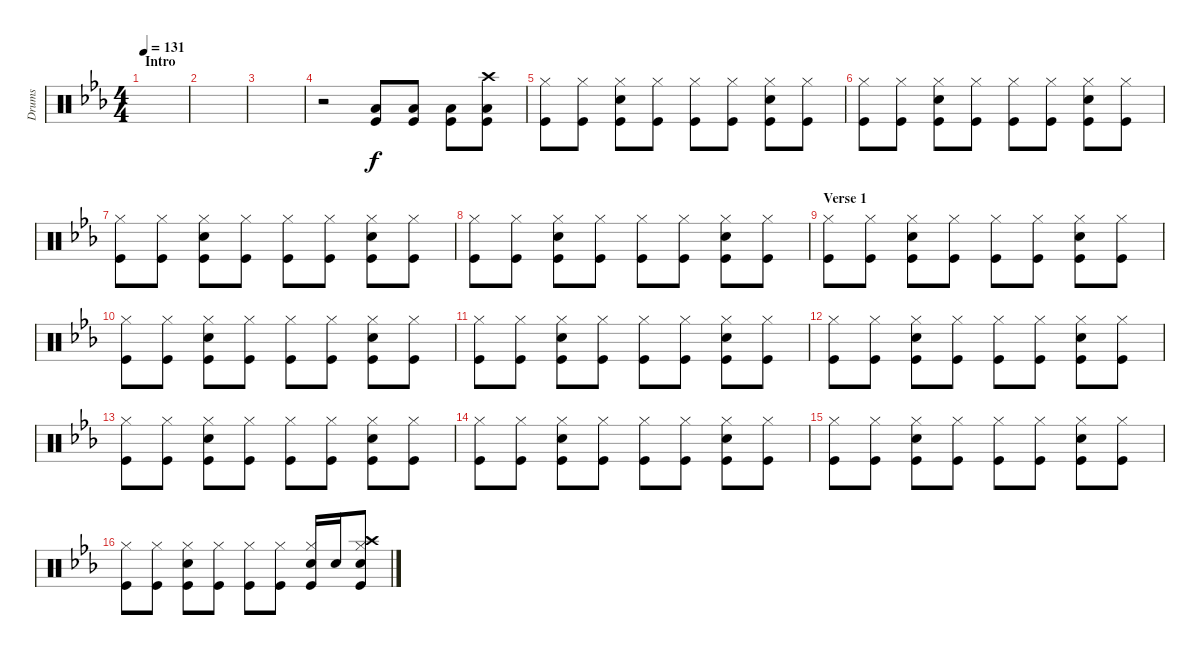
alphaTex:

\track ("Drums" "Drums") {instrument percussion}
\staff {score}
\articulation defaults
\ts (4 4)
\section ("" "Intro")
\tempo 131
\clef neutral
\ks eb
|
|
|
r.2 ("Kick (hit)" "Low Floor Tom (hit)").8 ("Kick (hit)" "Low Floor Tom (hit)").8 ("Kick (hit)" "Low Floor Tom (hit)").8 ("Kick (hit)" "Low Floor Tom (hit)" "Crash high (hit)").8 |
("Kick (hit)" "Hi-Hat (closed)").8 ("Kick (hit)" "Hi-Hat (closed)").8 ("Kick (hit)" "Snare (hit) 2" "Hi-Hat (closed)").8 ("Kick (hit)" "Hi-Hat (closed)").8 ("Kick (hit)" "Hi-Hat (closed)").8 ("Kick (hit)" "Hi-Hat (closed)").8 ("Kick (hit)" "Snare (hit) 2" "Hi-Hat (closed)").8 ("Kick (hit)" "Hi-Hat (closed)").8 |
("Kick (hit)" "Hi-Hat (closed)").8 ("Kick (hit)" "Hi-Hat (closed)").8 ("Kick (hit)" "Snare (hit) 2" "Hi-Hat (closed)").8 ("Kick (hit)" "Hi-Hat (closed)").8 ("Kick (hit)" "Hi-Hat (closed)").8 ("Kick (hit)" "Hi-Hat (closed)").8 ("Kick (hit)" "Snare (hit) 2" "Hi-Hat (closed)").8 ("Kick (hit)" "Hi-Hat (closed)").8 |
("Kick (hit)" "Hi-Hat (closed)").8 ("Kick (hit)" "Hi-Hat (closed)").8 ("Kick (hit)" "Snare (hit) 2" "Hi-Hat (closed)").8 ("Kick (hit)" "Hi-Hat (closed)").8 ("Kick (hit)" "Hi-Hat (closed)").8 ("Kick (hit)" "Hi-Hat (closed)").8 ("Kick (hit)" "Snare (hit) 2" "Hi-Hat (closed)").8 ("Kick (hit)" "Hi-Hat (closed)").8 |
("Kick (hit)" "Hi-Hat (closed)").8 ("Kick (hit)" "Hi-Hat (closed)").8 ("Kick (hit)" "Snare (hit) 2" "Hi-Hat (closed)").8 ("Kick (hit)" "Hi-Hat (closed)").8 ("Kick (hit)" "Hi-Hat (closed)").8 ("Kick (hit)" "Hi-Hat (closed)").8 ("Kick (hit)" "Snare (hit) 2" "Hi-Hat (closed)").8 ("Kick (hit)" "Hi-Hat (closed)").8 |
\section ("" "Verse 1")
("Kick (hit)" "Hi-Hat (closed)").8 ("Kick (hit)" "Hi-Hat (closed)").8 ("Kick (hit)" "Snare (hit) 2" "Hi-Hat (closed)").8 ("Kick (hit)" "Hi-Hat (closed)").8 ("Kick (hit)" "Hi-Hat (closed)").8 ("Kick (hit)" "Hi-Hat (closed)").8 ("Kick (hit)" "Snare (hit) 2" "Hi-Hat (closed)").8 ("Kick (hit)" "Hi-Hat (closed)").8 |
("Kick (hit)" "Hi-Hat (closed)").8 ("Kick (hit)" "Hi-Hat (closed)").8 ("Kick (hit)" "Snare (hit) 2" "Hi-Hat (closed)").8 ("Kick (hit)" "Hi-Hat (closed)").8 ("Kick (hit)" "Hi-Hat (closed)").8 ("Kick (hit)" "Hi-Hat (closed)").8 ("Kick (hit)" "Snare (hit) 2" "Hi-Hat (closed)").8 ("Kick (hit)" "Hi-Hat (closed)").8 |
("Kick (hit)" "Hi-Hat (closed)").8 ("Kick (hit)" "Hi-Hat (closed)").8 ("Kick (hit)" "Snare (hit) 2" "Hi-Hat (closed)").8 ("Kick (hit)" "Hi-Hat (closed)").8 ("Kick (hit)" "Hi-Hat (closed)").8 ("Kick (hit)" "Hi-Hat (closed)").8 ("Kick (hit)" "Snare (hit) 2" "Hi-Hat (closed)").8 ("Kick (hit)" "Hi-Hat (closed)").8 |
("Kick (hit)" "Hi-Hat (closed)").8 ("Kick (hit)" "Hi-Hat (closed)").8 ("Kick (hit)" "Snare (hit) 2" "Hi-Hat (closed)").8 ("Kick (hit)" "Hi-Hat (closed)").8 ("Kick (hit)" "Hi-Hat (closed)").8 ("Kick (hit)" "Hi-Hat (closed)").8 ("Kick (hit)" "Snare (hit) 2" "Hi-Hat (closed)").8 ("Kick (hit)" "Hi-Hat (closed)").8 |
("Kick (hit)" "Hi-Hat (closed)").8 ("Kick (hit)" "Hi-Hat (closed)").8 ("Kick (hit)" "Snare (hit) 2" "Hi-Hat (closed)").8 ("Kick (hit)" "Hi-Hat (closed)").8 ("Kick (hit)" "Hi-Hat (closed)").8 ("Kick (hit)" "Hi-Hat (closed)").8 ("Kick (hit)" "Snare (hit) 2" "Hi-Hat (closed)").8 ("Kick (hit)" "Hi-Hat (closed)").8 |
("Kick (hit)" "Hi-Hat (closed)").8 ("Kick (hit)" "Hi-Hat (closed)").8 ("Kick (hit)" "Snare (hit) 2" "Hi-Hat (closed)").8 ("Kick (hit)" "Hi-Hat (closed)").8 ("Kick (hit)" "Hi-Hat (closed)").8 ("Kick (hit)" "Hi-Hat (closed)").8 ("Kick (hit)" "Snare (hit) 2" "Hi-Hat (closed)").8 ("Kick (hit)" "Hi-Hat (closed)").8 |
("Kick (hit)" "Hi-Hat (closed)").8 ("Kick (hit)" "Hi-Hat (closed)").8 ("Kick (hit)" "Snare (hit) 2" "Hi-Hat (closed)").8 ("Kick (hit)" "Hi-Hat (closed)").8 ("Kick (hit)" "Hi-Hat (closed)").8 ("Kick (hit)" "Hi-Hat (closed)").8 ("Kick (hit)" "Snare (hit) 2" "Hi-Hat (closed)").8 ("Kick (hit)" "Hi-Hat (closed)").8 |
("Kick (hit)" "Hi-Hat (closed)").8 ("Kick (hit)" "Hi-Hat (closed)").8 ("Kick (hit)" "Snare (hit) 2" "Hi-Hat (closed)").8 ("Kick (hit)" "Hi-Hat (closed)").8 ("Kick (hit)" "Hi-Hat (closed)").8 ("Kick (hit)" "Hi-Hat (closed)").8 ("Kick (hit)" "Snare (hit) 2" "Hi-Hat (closed)").16 "Snare (hit) 2".16 ("Kick (hit)" "Snare (hit) 2" "Hi-Hat (closed)" "Crash high (hit)").8
